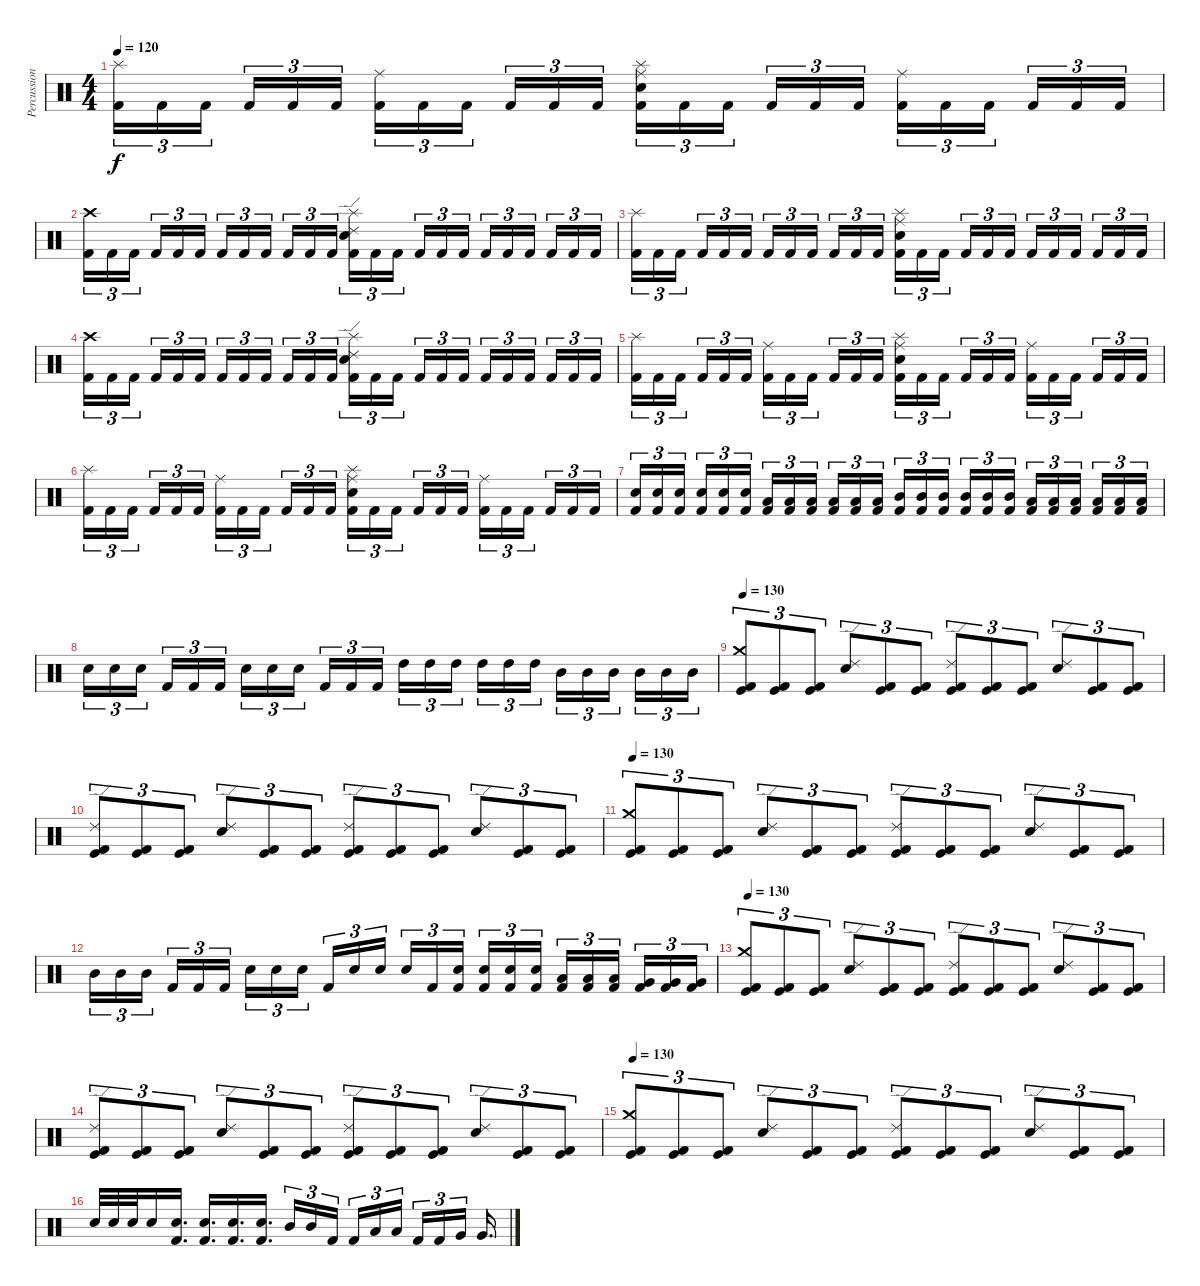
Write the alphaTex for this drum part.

\track ("Percussion" "Percussion") {instrument percussion}
\staff {score}
\articulation defaults
\ts (4 4)
\tempo 120
\clef neutral
\ks c
("Splash (hit)" "Kick (hit) 2").16{tu (3 2) dy f} "Kick (hit) 2".16{tu (3 2)} "Kick (hit) 2".16{tu (3 2) beam splitsecondary} "Kick (hit) 2".16{tu (3 2)} "Kick (hit) 2".16{tu (3 2)} "Kick (hit) 2".16{tu (3 2)} ("Ride (middle)" "Kick (hit) 2").16{tu (3 2)} "Kick (hit) 2".16{tu (3 2)} "Kick (hit) 2".16{tu (3 2) beam splitsecondary} "Kick (hit) 2".16{tu (3 2)} "Kick (hit) 2".16{tu (3 2)} "Kick (hit) 2".16{tu (3 2)} ("Ride (middle)" "Splash (hit)" "Electric Snare (hit)" "Kick (hit) 2").16{tu (3 2)} "Kick (hit) 2".16{tu (3 2)} "Kick (hit) 2".16{tu (3 2) beam splitsecondary} "Kick (hit) 2".16{tu (3 2)} "Kick (hit) 2".16{tu (3 2)} "Kick (hit) 2".16{tu (3 2)} ("Ride (middle)" "Kick (hit) 2").16{tu (3 2)} "Kick (hit) 2".16{tu (3 2)} "Kick (hit) 2".16{tu (3 2) beam splitsecondary} "Kick (hit) 2".16{tu (3 2)} "Kick (hit) 2".16{tu (3 2)} "Kick (hit) 2".16{tu (3 2)} |
("Crash high (hit)" "Kick (hit) 2").16{tu (3 2)} "Kick (hit) 2".16{tu (3 2)} "Kick (hit) 2".16{tu (3 2) beam splitsecondary} "Kick (hit) 2".16{tu (3 2)} "Kick (hit) 2".16{tu (3 2)} "Kick (hit) 2".16{tu (3 2)} "Kick (hit) 2".16{tu (3 2)} "Kick (hit) 2".16{tu (3 2)} "Kick (hit) 2".16{tu (3 2) beam splitsecondary} "Kick (hit) 2".16{tu (3 2)} "Kick (hit) 2".16{tu (3 2)} "Kick (hit) 2".16{tu (3 2)} ("Ride (edge) 2" "Splash (hit)" "Electric Snare (hit)" "Kick (hit) 2").16{tu (3 2)} "Kick (hit) 2".16{tu (3 2)} "Kick (hit) 2".16{tu (3 2) beam splitsecondary} "Kick (hit) 2".16{tu (3 2)} "Kick (hit) 2".16{tu (3 2)} "Kick (hit) 2".16{tu (3 2)} "Kick (hit) 2".16{tu (3 2)} "Kick (hit) 2".16{tu (3 2)} "Kick (hit) 2".16{tu (3 2) beam splitsecondary} "Kick (hit) 2".16{tu (3 2)} "Kick (hit) 2".16{tu (3 2)} "Kick (hit) 2".16{tu (3 2)} |
("Splash (hit)" "Kick (hit) 2").16{tu (3 2)} "Kick (hit) 2".16{tu (3 2)} "Kick (hit) 2".16{tu (3 2) beam splitsecondary} "Kick (hit) 2".16{tu (3 2)} "Kick (hit) 2".16{tu (3 2)} "Kick (hit) 2".16{tu (3 2)} "Kick (hit) 2".16{tu (3 2)} "Kick (hit) 2".16{tu (3 2)} "Kick (hit) 2".16{tu (3 2) beam splitsecondary} "Kick (hit) 2".16{tu (3 2)} "Kick (hit) 2".16{tu (3 2)} "Kick (hit) 2".16{tu (3 2)} ("Ride (middle)" "Splash (hit)" "Electric Snare (hit)" "Kick (hit) 2").16{tu (3 2)} "Kick (hit) 2".16{tu (3 2)} "Kick (hit) 2".16{tu (3 2) beam splitsecondary} "Kick (hit) 2".16{tu (3 2)} "Kick (hit) 2".16{tu (3 2)} "Kick (hit) 2".16{tu (3 2)} "Kick (hit) 2".16{tu (3 2)} "Kick (hit) 2".16{tu (3 2)} "Kick (hit) 2".16{tu (3 2) beam splitsecondary} "Kick (hit) 2".16{tu (3 2)} "Kick (hit) 2".16{tu (3 2)} "Kick (hit) 2".16{tu (3 2)} |
("Crash high (hit)" "Kick (hit) 2").16{tu (3 2)} "Kick (hit) 2".16{tu (3 2)} "Kick (hit) 2".16{tu (3 2) beam splitsecondary} "Kick (hit) 2".16{tu (3 2)} "Kick (hit) 2".16{tu (3 2)} "Kick (hit) 2".16{tu (3 2)} "Kick (hit) 2".16{tu (3 2)} "Kick (hit) 2".16{tu (3 2)} "Kick (hit) 2".16{tu (3 2) beam splitsecondary} "Kick (hit) 2".16{tu (3 2)} "Kick (hit) 2".16{tu (3 2)} "Kick (hit) 2".16{tu (3 2)} ("Ride (edge) 2" "Splash (hit)" "Electric Snare (hit)" "Kick (hit) 2").16{tu (3 2)} "Kick (hit) 2".16{tu (3 2)} "Kick (hit) 2".16{tu (3 2) beam splitsecondary} "Kick (hit) 2".16{tu (3 2)} "Kick (hit) 2".16{tu (3 2)} "Kick (hit) 2".16{tu (3 2)} "Kick (hit) 2".16{tu (3 2)} "Kick (hit) 2".16{tu (3 2)} "Kick (hit) 2".16{tu (3 2) beam splitsecondary} "Kick (hit) 2".16{tu (3 2)} "Kick (hit) 2".16{tu (3 2)} "Kick (hit) 2".16{tu (3 2)} |
("Splash (hit)" "Kick (hit) 2").16{tu (3 2)} "Kick (hit) 2".16{tu (3 2)} "Kick (hit) 2".16{tu (3 2) beam splitsecondary} "Kick (hit) 2".16{tu (3 2)} "Kick (hit) 2".16{tu (3 2)} "Kick (hit) 2".16{tu (3 2)} ("Ride (middle)" "Kick (hit) 2").16{tu (3 2)} "Kick (hit) 2".16{tu (3 2)} "Kick (hit) 2".16{tu (3 2) beam splitsecondary} "Kick (hit) 2".16{tu (3 2)} "Kick (hit) 2".16{tu (3 2)} "Kick (hit) 2".16{tu (3 2)} ("Ride (middle)" "Splash (hit)" "Electric Snare (hit)" "Kick (hit) 2").16{tu (3 2)} "Kick (hit) 2".16{tu (3 2)} "Kick (hit) 2".16{tu (3 2) beam splitsecondary} "Kick (hit) 2".16{tu (3 2)} "Kick (hit) 2".16{tu (3 2)} "Kick (hit) 2".16{tu (3 2)} ("Ride (middle)" "Kick (hit) 2").16{tu (3 2)} "Kick (hit) 2".16{tu (3 2)} "Kick (hit) 2".16{tu (3 2) beam splitsecondary} "Kick (hit) 2".16{tu (3 2)} "Kick (hit) 2".16{tu (3 2)} "Kick (hit) 2".16{tu (3 2)} |
("Splash (hit)" "Kick (hit) 2").16{tu (3 2)} "Kick (hit) 2".16{tu (3 2)} "Kick (hit) 2".16{tu (3 2) beam splitsecondary} "Kick (hit) 2".16{tu (3 2)} "Kick (hit) 2".16{tu (3 2)} "Kick (hit) 2".16{tu (3 2)} ("Ride (middle)" "Kick (hit) 2").16{tu (3 2)} "Kick (hit) 2".16{tu (3 2)} "Kick (hit) 2".16{tu (3 2) beam splitsecondary} "Kick (hit) 2".16{tu (3 2)} "Kick (hit) 2".16{tu (3 2)} "Kick (hit) 2".16{tu (3 2)} ("Ride (middle)" "Splash (hit)" "Electric Snare (hit)" "Kick (hit) 2").16{tu (3 2)} "Kick (hit) 2".16{tu (3 2)} "Kick (hit) 2".16{tu (3 2) beam splitsecondary} "Kick (hit) 2".16{tu (3 2)} "Kick (hit) 2".16{tu (3 2)} "Kick (hit) 2".16{tu (3 2)} ("Ride (middle)" "Kick (hit) 2").16{tu (3 2)} "Kick (hit) 2".16{tu (3 2)} "Kick (hit) 2".16{tu (3 2) beam splitsecondary} "Kick (hit) 2".16{tu (3 2)} "Kick (hit) 2".16{tu (3 2)} "Kick (hit) 2".16{tu (3 2)} |
("Electric Snare (hit)" "Kick (hit) 2").16{tu (3 2)} ("Electric Snare (hit)" "Kick (hit) 2").16{tu (3 2)} ("Electric Snare (hit)" "Kick (hit) 2").16{tu (3 2) beam splitsecondary} ("Electric Snare (hit)" "Kick (hit) 2").16{tu (3 2)} ("Electric Snare (hit)" "Kick (hit) 2").16{tu (3 2)} ("Electric Snare (hit)" "Kick (hit) 2").16{tu (3 2)} ("Low Tom (hit)" "Kick (hit) 2").16{tu (3 2)} ("Low Tom (hit)" "Kick (hit) 2").16{tu (3 2)} ("Low Tom (hit)" "Kick (hit) 2").16{tu (3 2) beam splitsecondary} ("Low Tom (hit)" "Kick (hit) 2").16{tu (3 2)} ("Low Tom (hit)" "Kick (hit) 2").16{tu (3 2)} ("Low Tom (hit)" "Kick (hit) 2").16{tu (3 2)} ("Mid Tom (hit)" "Kick (hit) 2").16{tu (3 2)} ("Mid Tom (hit)" "Kick (hit) 2").16{tu (3 2)} ("Mid Tom (hit)" "Kick (hit) 2").16{tu (3 2) beam splitsecondary} ("Mid Tom (hit)" "Kick (hit) 2").16{tu (3 2)} ("Mid Tom (hit)" "Kick (hit) 2").16{tu (3 2)} ("Mid Tom (hit)" "Kick (hit) 2").16{tu (3 2)} ("Low Tom (hit)" "Kick (hit) 2").16{tu (3 2)} ("Low Tom (hit)" "Kick (hit) 2").16{tu (3 2)} ("Low Tom (hit)" "Kick (hit) 2").16{tu (3 2) beam splitsecondary} ("Low Tom (hit)" "Kick (hit) 2").16{tu (3 2)} ("Low Tom (hit)" "Kick (hit) 2").16{tu (3 2)} ("Low Tom (hit)" "Kick (hit) 2").16{tu (3 2)} |
"Electric Snare (hit)".16{tu (3 2)} "Electric Snare (hit)".16{tu (3 2)} "Electric Snare (hit)".16{tu (3 2) beam splitsecondary} "Kick (hit) 2".16{tu (3 2)} "Kick (hit) 2".16{tu (3 2)} "Kick (hit) 2".16{tu (3 2)} "Electric Snare (hit)".16{tu (3 2)} "Electric Snare (hit)".16{tu (3 2)} "Electric Snare (hit)".16{tu (3 2) beam splitsecondary} "Kick (hit) 2".16{tu (3 2)} "Kick (hit) 2".16{tu (3 2)} "Kick (hit) 2".16{tu (3 2)} "High Tom (hit)".16{tu (3 2)} "High Tom (hit)".16{tu (3 2)} "High Tom (hit)".16{tu (3 2) beam splitsecondary} "High Tom (hit)".16{tu (3 2)} "High Tom (hit)".16{tu (3 2)} "High Tom (hit)".16{tu (3 2)} "Mid Tom (hit)".16{tu (3 2)} "Mid Tom (hit)".16{tu (3 2)} "Mid Tom (hit)".16{tu (3 2) beam splitsecondary} "Mid Tom (hit)".16{tu (3 2)} "Mid Tom (hit)".16{tu (3 2)} "Mid Tom (hit)".16{tu (3 2)} |
\tempo 130
("Crash medium (hit)" "Kick (hit)" "Kick (hit) 2").8{tu (3 2)} ("Kick (hit)" "Kick (hit) 2").8{tu (3 2)} ("Kick (hit)" "Kick (hit) 2").8{tu (3 2)} ("Ride (edge) 2" "Electric Snare (hit)").8{tu (3 2)} ("Kick (hit)" "Kick (hit) 2").8{tu (3 2)} ("Kick (hit)" "Kick (hit) 2").8{tu (3 2)} ("Ride (edge) 2" "Kick (hit)" "Kick (hit) 2").8{tu (3 2)} ("Kick (hit)" "Kick (hit) 2").8{tu (3 2)} ("Kick (hit)" "Kick (hit) 2").8{tu (3 2)} ("Ride (edge) 2" "Electric Snare (hit)").8{tu (3 2)} ("Kick (hit)" "Kick (hit) 2").8{tu (3 2)} ("Kick (hit)" "Kick (hit) 2").8{tu (3 2)} |
("Ride (edge) 2" "Kick (hit)" "Kick (hit) 2").8{tu (3 2)} ("Kick (hit)" "Kick (hit) 2").8{tu (3 2)} ("Kick (hit)" "Kick (hit) 2").8{tu (3 2)} ("Ride (edge) 2" "Electric Snare (hit)").8{tu (3 2)} ("Kick (hit)" "Kick (hit) 2").8{tu (3 2)} ("Kick (hit)" "Kick (hit) 2").8{tu (3 2)} ("Ride (edge) 2" "Kick (hit)" "Kick (hit) 2").8{tu (3 2)} ("Kick (hit)" "Kick (hit) 2").8{tu (3 2)} ("Kick (hit)" "Kick (hit) 2").8{tu (3 2)} ("Ride (edge) 2" "Electric Snare (hit)").8{tu (3 2)} ("Kick (hit)" "Kick (hit) 2").8{tu (3 2)} ("Kick (hit)" "Kick (hit) 2").8{tu (3 2)} |
\tempo 130
("Crash medium (hit)" "Kick (hit)" "Kick (hit) 2").8{tu (3 2)} ("Kick (hit)" "Kick (hit) 2").8{tu (3 2)} ("Kick (hit)" "Kick (hit) 2").8{tu (3 2)} ("Ride (edge) 2" "Electric Snare (hit)").8{tu (3 2)} ("Kick (hit)" "Kick (hit) 2").8{tu (3 2)} ("Kick (hit)" "Kick (hit) 2").8{tu (3 2)} ("Ride (edge) 2" "Kick (hit)" "Kick (hit) 2").8{tu (3 2)} ("Kick (hit)" "Kick (hit) 2").8{tu (3 2)} ("Kick (hit)" "Kick (hit) 2").8{tu (3 2)} ("Ride (edge) 2" "Electric Snare (hit)").8{tu (3 2)} ("Kick (hit)" "Kick (hit) 2").8{tu (3 2)} ("Kick (hit)" "Kick (hit) 2").8{tu (3 2)} |
"Mid Tom (hit)".16{tu (3 2)} "Mid Tom (hit)".16{tu (3 2)} "Mid Tom (hit)".16{tu (3 2) beam splitsecondary} "Kick (hit) 2".16{tu (3 2)} "Kick (hit) 2".16{tu (3 2)} "Kick (hit) 2".16{tu (3 2)} "Electric Snare (hit)".16{tu (3 2)} "Electric Snare (hit)".16{tu (3 2)} "Electric Snare (hit)".16{tu (3 2) beam splitsecondary} "Kick (hit) 2".16{tu (3 2)} "Electric Snare (hit)".16{tu (3 2)} "Electric Snare (hit)".16{tu (3 2)} "Electric Snare (hit)".16{tu (3 2)} "Kick (hit) 2".16{tu (3 2)} ("Electric Snare (hit)" "Kick (hit) 2").16{tu (3 2) beam splitsecondary} ("Electric Snare (hit)" "Kick (hit) 2").16{tu (3 2)} ("Electric Snare (hit)" "Kick (hit) 2").16{tu (3 2)} ("Electric Snare (hit)" "Kick (hit) 2").16{tu (3 2)} ("Low Tom (hit)" "Kick (hit) 2").16{tu (3 2)} ("Low Tom (hit)" "Kick (hit) 2").16{tu (3 2)} ("Low Tom (hit)" "Kick (hit) 2").16{tu (3 2) beam splitsecondary} ("Very Low Tom (hit)" "Kick (hit) 2").16{tu (3 2)} ("Very Low Tom (hit)" "Kick (hit) 2").16{tu (3 2)} ("Very Low Tom (hit)" "Kick (hit) 2").16{tu (3 2)} |
\tempo 130
("Crash medium (hit)" "Kick (hit)" "Kick (hit) 2").8{tu (3 2)} ("Kick (hit)" "Kick (hit) 2").8{tu (3 2)} ("Kick (hit)" "Kick (hit) 2").8{tu (3 2)} ("Ride (edge) 2" "Electric Snare (hit)").8{tu (3 2)} ("Kick (hit)" "Kick (hit) 2").8{tu (3 2)} ("Kick (hit)" "Kick (hit) 2").8{tu (3 2)} ("Ride (edge) 2" "Kick (hit)" "Kick (hit) 2").8{tu (3 2)} ("Kick (hit)" "Kick (hit) 2").8{tu (3 2)} ("Kick (hit)" "Kick (hit) 2").8{tu (3 2)} ("Ride (edge) 2" "Electric Snare (hit)").8{tu (3 2)} ("Kick (hit)" "Kick (hit) 2").8{tu (3 2)} ("Kick (hit)" "Kick (hit) 2").8{tu (3 2)} |
("Ride (edge) 2" "Kick (hit)" "Kick (hit) 2").8{tu (3 2)} ("Kick (hit)" "Kick (hit) 2").8{tu (3 2)} ("Kick (hit)" "Kick (hit) 2").8{tu (3 2)} ("Ride (edge) 2" "Electric Snare (hit)").8{tu (3 2)} ("Kick (hit)" "Kick (hit) 2").8{tu (3 2)} ("Kick (hit)" "Kick (hit) 2").8{tu (3 2)} ("Ride (edge) 2" "Kick (hit)" "Kick (hit) 2").8{tu (3 2)} ("Kick (hit)" "Kick (hit) 2").8{tu (3 2)} ("Kick (hit)" "Kick (hit) 2").8{tu (3 2)} ("Ride (edge) 2" "Electric Snare (hit)").8{tu (3 2)} ("Kick (hit)" "Kick (hit) 2").8{tu (3 2)} ("Kick (hit)" "Kick (hit) 2").8{tu (3 2)} |
\tempo 130
("Crash medium (hit)" "Kick (hit)" "Kick (hit) 2").8{tu (3 2)} ("Kick (hit)" "Kick (hit) 2").8{tu (3 2)} ("Kick (hit)" "Kick (hit) 2").8{tu (3 2)} ("Ride (edge) 2" "Electric Snare (hit)").8{tu (3 2)} ("Kick (hit)" "Kick (hit) 2").8{tu (3 2)} ("Kick (hit)" "Kick (hit) 2").8{tu (3 2)} ("Ride (edge) 2" "Kick (hit)" "Kick (hit) 2").8{tu (3 2)} ("Kick (hit)" "Kick (hit) 2").8{tu (3 2)} ("Kick (hit)" "Kick (hit) 2").8{tu (3 2)} ("Ride (edge) 2" "Electric Snare (hit)").8{tu (3 2)} ("Kick (hit)" "Kick (hit) 2").8{tu (3 2)} ("Kick (hit)" "Kick (hit) 2").8{tu (3 2)} |
"Electric Snare (hit)".32 "Electric Snare (hit)".32 "Electric Snare (hit)".32 "Electric Snare (hit)".16 ("Electric Snare (hit)" "Kick (hit) 2").16{d} ("Electric Snare (hit)" "Kick (hit) 2").16{d} ("Electric Snare (hit)" "Kick (hit) 2").16{d} ("Electric Snare (hit)" "Kick (hit) 2").16{d} "Mid Tom (hit)".16{tu (3 2)} "Mid Tom (hit)".16{tu (3 2)} "Kick (hit) 2".16{tu (3 2) beam splitsecondary} "Kick (hit) 2".16{tu (3 2)} "Low Tom (hit)".16{tu (3 2)} "Low Tom (hit)".16{tu (3 2)} "Kick (hit) 2".16{tu (3 2)} "Kick (hit) 2".16{tu (3 2)} "Very Low Tom (hit)".16{tu (3 2) beam splitsecondary} "Very Low Tom (hit)".16{d}
